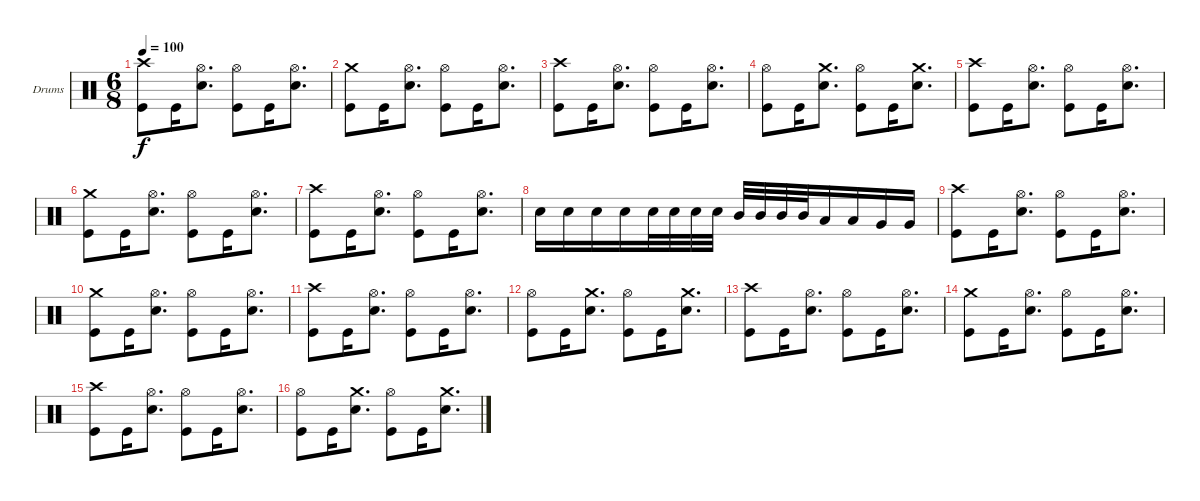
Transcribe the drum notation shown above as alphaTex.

\defaultSystemsLayout 4
\bracketExtendMode groupsimilarinstruments
\firstSystemTrackNameOrientation horizontal
\otherSystemsTrackNameOrientation horizontal
\track ("Stefan Schwarzmann" "Drums") {instrument percussion}
\staff {score}
\articulation defaults
\ts (6 8)
\tempo 100
\clef neutral
\ks c
("Kick (hit)" "Crash high (hit)").8{dy f} "Kick (hit)".16 ("Snare (hit) 2" "Hi-Hat (open)").8{d} ("Kick (hit)" "Hi-Hat (open)").8 "Kick (hit)".16 ("Snare (hit) 2" "Hi-Hat (open)").8{d} |
("Kick (hit)" "Crash medium (hit)").8 "Kick (hit)".16 ("Snare (hit) 2" "Hi-Hat (open)").8{d} ("Kick (hit)" "Hi-Hat (open)").8 "Kick (hit)".16 ("Snare (hit) 2" "Hi-Hat (open)").8{d} |
("Kick (hit)" "Crash high (hit)").8 "Kick (hit)".16 ("Snare (hit) 2" "Hi-Hat (open)").8{d} ("Kick (hit)" "Hi-Hat (open)").8 "Kick (hit)".16 ("Snare (hit) 2" "Hi-Hat (open)").8{d} |
("Kick (hit)" "Hi-Hat (open)").8 "Kick (hit)".16 ("Snare (hit) 2" "Crash medium (hit)").8{d} ("Kick (hit)" "Hi-Hat (open)").8 "Kick (hit)".16 ("Snare (hit) 2" "Crash medium (hit)").8{d} |
("Kick (hit)" "Crash high (hit)").8 "Kick (hit)".16 ("Snare (hit) 2" "Hi-Hat (open)").8{d} ("Kick (hit)" "Hi-Hat (open)").8 "Kick (hit)".16 ("Snare (hit) 2" "Hi-Hat (open)").8{d} |
("Kick (hit)" "Crash medium (hit)").8 "Kick (hit)".16 ("Snare (hit) 2" "Hi-Hat (open)").8{d} ("Kick (hit)" "Hi-Hat (open)").8 "Kick (hit)".16 ("Snare (hit) 2" "Hi-Hat (open)").8{d} |
("Kick (hit)" "Crash high (hit)").8 "Kick (hit)".16 ("Snare (hit) 2" "Hi-Hat (open)").8{d} ("Kick (hit)" "Hi-Hat (open)").8 "Kick (hit)".16 ("Snare (hit) 2" "Hi-Hat (open)").8{d} |
"Snare (hit) 2".16 "Snare (hit) 2".16 "Snare (hit) 2".16 "Snare (hit) 2".16 "Snare (hit) 2".32 "Snare (hit) 2".32 "Snare (hit) 2".32 "Snare (hit) 2".32 "Mid Tom (hit)".32 "Mid Tom (hit)".32 "Mid Tom (hit)".32 "Mid Tom (hit)".32 "Low Tom (hit)".16 "Low Tom (hit)".16 "Very Low Tom (hit)".16 "Very Low Tom (hit)".16 |
("Kick (hit)" "Crash high (hit)").8 "Kick (hit)".16 ("Snare (hit) 2" "Hi-Hat (open)").8{d} ("Kick (hit)" "Hi-Hat (open)").8 "Kick (hit)".16 ("Snare (hit) 2" "Hi-Hat (open)").8{d} |
("Kick (hit)" "Crash medium (hit)").8 "Kick (hit)".16 ("Snare (hit) 2" "Hi-Hat (open)").8{d} ("Kick (hit)" "Hi-Hat (open)").8 "Kick (hit)".16 ("Snare (hit) 2" "Hi-Hat (open)").8{d} |
("Kick (hit)" "Crash high (hit)").8 "Kick (hit)".16 ("Snare (hit) 2" "Hi-Hat (open)").8{d} ("Kick (hit)" "Hi-Hat (open)").8 "Kick (hit)".16 ("Snare (hit) 2" "Hi-Hat (open)").8{d} |
("Kick (hit)" "Hi-Hat (open)").8 "Kick (hit)".16 ("Snare (hit) 2" "Crash medium (hit)").8{d} ("Kick (hit)" "Hi-Hat (open)").8 "Kick (hit)".16 ("Snare (hit) 2" "Crash medium (hit)").8{d} |
("Kick (hit)" "Crash high (hit)").8 "Kick (hit)".16 ("Snare (hit) 2" "Hi-Hat (open)").8{d} ("Kick (hit)" "Hi-Hat (open)").8 "Kick (hit)".16 ("Snare (hit) 2" "Hi-Hat (open)").8{d} |
("Kick (hit)" "Crash medium (hit)").8 "Kick (hit)".16 ("Snare (hit) 2" "Hi-Hat (open)").8{d} ("Kick (hit)" "Hi-Hat (open)").8 "Kick (hit)".16 ("Snare (hit) 2" "Hi-Hat (open)").8{d} |
("Kick (hit)" "Crash high (hit)").8 "Kick (hit)".16 ("Snare (hit) 2" "Hi-Hat (open)").8{d} ("Kick (hit)" "Hi-Hat (open)").8 "Kick (hit)".16 ("Snare (hit) 2" "Hi-Hat (open)").8{d} |
("Kick (hit)" "Hi-Hat (open)").8 "Kick (hit)".16 ("Snare (hit) 2" "Crash medium (hit)").8{d} ("Kick (hit)" "Hi-Hat (open)").8 "Kick (hit)".16 ("Snare (hit) 2" "Crash medium (hit)").8{d}
